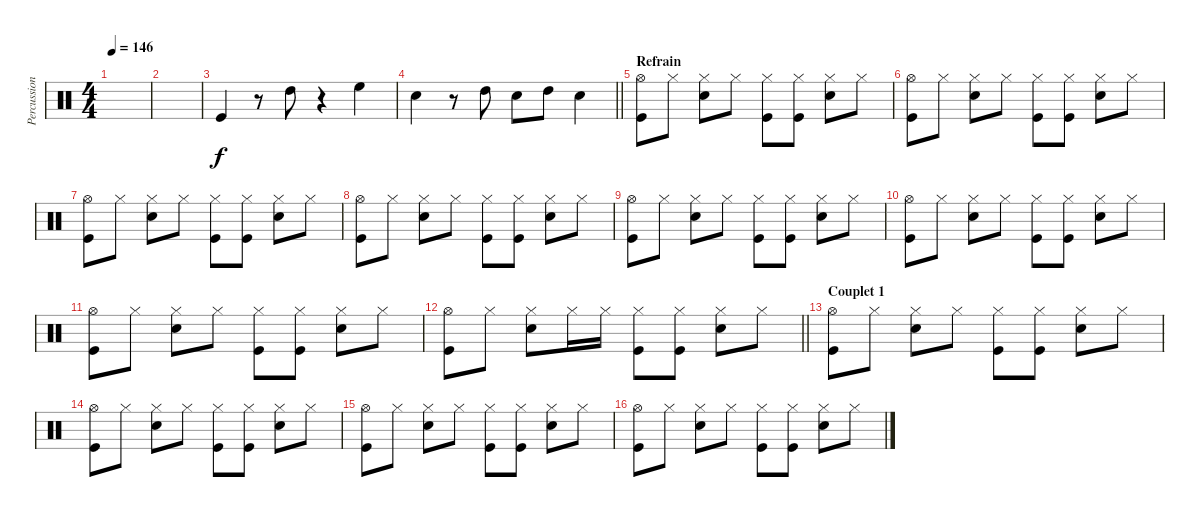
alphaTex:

\track ("Percussions" "Percussion") {instrument percussion}
\staff {score}
\articulation defaults
\ts (4 4)
\tempo 146
\clef neutral
\ks c
|
|
"Kick (hit)".4 r.8 "High Tom (hit)".8 r.4 "High Floor Tom (hit)".4 |
\barLineRight lightlight "Snare (hit) 2".4
r.8 "High Tom (hit)".8 "Snare (hit) 2".8 "High Tom (hit)".8 "Snare (hit) 2".4 |
\section ("" "Refrain")
("Hi-Hat (open)" "Kick (hit)").8 "Hi-Hat (closed)".8 ("Hi-Hat (closed)" "Snare (hit) 2").8 "Hi-Hat (closed)".8 ("Hi-Hat (closed)" "Kick (hit)").8 ("Hi-Hat (closed)" "Kick (hit)").8 ("Hi-Hat (closed)" "Snare (hit) 2").8 "Hi-Hat (closed)".8 |
("Hi-Hat (open)" "Kick (hit)").8 "Hi-Hat (closed)".8 ("Hi-Hat (closed)" "Snare (hit) 2").8 "Hi-Hat (closed)".8 ("Hi-Hat (closed)" "Kick (hit)").8 ("Hi-Hat (closed)" "Kick (hit)").8 ("Hi-Hat (closed)" "Snare (hit) 2").8 "Hi-Hat (closed)".8 |
("Hi-Hat (open)" "Kick (hit)").8 "Hi-Hat (closed)".8 ("Hi-Hat (closed)" "Snare (hit) 2").8 "Hi-Hat (closed)".8 ("Hi-Hat (closed)" "Kick (hit)").8 ("Hi-Hat (closed)" "Kick (hit)").8 ("Hi-Hat (closed)" "Snare (hit) 2").8 "Hi-Hat (closed)".8 |
("Hi-Hat (open)" "Kick (hit)").8 "Hi-Hat (closed)".8 ("Hi-Hat (closed)" "Snare (hit) 2").8 "Hi-Hat (closed)".8 ("Hi-Hat (closed)" "Kick (hit)").8 ("Hi-Hat (closed)" "Kick (hit)").8 ("Hi-Hat (closed)" "Snare (hit) 2").8 "Hi-Hat (closed)".8 |
("Hi-Hat (open)" "Kick (hit)").8 "Hi-Hat (closed)".8 ("Hi-Hat (closed)" "Snare (hit) 2").8 "Hi-Hat (closed)".8 ("Hi-Hat (closed)" "Kick (hit)").8 ("Hi-Hat (closed)" "Kick (hit)").8 ("Hi-Hat (closed)" "Snare (hit) 2").8 "Hi-Hat (closed)".8 |
("Hi-Hat (open)" "Kick (hit)").8 "Hi-Hat (closed)".8 ("Hi-Hat (closed)" "Snare (hit) 2").8 "Hi-Hat (closed)".8 ("Hi-Hat (closed)" "Kick (hit)").8 ("Hi-Hat (closed)" "Kick (hit)").8 ("Hi-Hat (closed)" "Snare (hit) 2").8 "Hi-Hat (closed)".8 |
("Hi-Hat (open)" "Kick (hit)").8 "Hi-Hat (closed)".8 ("Hi-Hat (closed)" "Snare (hit) 2").8 "Hi-Hat (closed)".8 ("Hi-Hat (closed)" "Kick (hit)").8 ("Hi-Hat (closed)" "Kick (hit)").8 ("Hi-Hat (closed)" "Snare (hit) 2").8 "Hi-Hat (closed)".8 |
\barLineRight lightlight
("Hi-Hat (open)" "Kick (hit)").8 "Hi-Hat (closed)".8 ("Hi-Hat (closed)" "Snare (hit) 2").8 "Hi-Hat (closed)".16 "Hi-Hat (closed)".16 ("Hi-Hat (closed)" "Kick (hit)").8 ("Hi-Hat (closed)" "Kick (hit)").8 ("Hi-Hat (closed)" "Snare (hit) 2").8 "Hi-Hat (closed)".8 |
\section ("" "Couplet 1")
("Hi-Hat (open)" "Kick (hit)").8 "Hi-Hat (closed)".8 ("Hi-Hat (closed)" "Snare (hit) 2").8 "Hi-Hat (closed)".8 ("Hi-Hat (closed)" "Kick (hit)").8 ("Hi-Hat (closed)" "Kick (hit)").8 ("Hi-Hat (closed)" "Snare (hit) 2").8 "Hi-Hat (closed)".8 |
("Hi-Hat (open)" "Kick (hit)").8 "Hi-Hat (closed)".8 ("Hi-Hat (closed)" "Snare (hit) 2").8 "Hi-Hat (closed)".8 ("Hi-Hat (closed)" "Kick (hit)").8 ("Hi-Hat (closed)" "Kick (hit)").8 ("Hi-Hat (closed)" "Snare (hit) 2").8 "Hi-Hat (closed)".8 |
("Hi-Hat (open)" "Kick (hit)").8 "Hi-Hat (closed)".8 ("Hi-Hat (closed)" "Snare (hit) 2").8 "Hi-Hat (closed)".8 ("Hi-Hat (closed)" "Kick (hit)").8 ("Hi-Hat (closed)" "Kick (hit)").8 ("Hi-Hat (closed)" "Snare (hit) 2").8 "Hi-Hat (closed)".8 |
("Hi-Hat (open)" "Kick (hit)").8 "Hi-Hat (closed)".8 ("Hi-Hat (closed)" "Snare (hit) 2").8 "Hi-Hat (closed)".8 ("Hi-Hat (closed)" "Kick (hit)").8 ("Hi-Hat (closed)" "Kick (hit)").8 ("Hi-Hat (closed)" "Snare (hit) 2").8 "Hi-Hat (closed)".8
